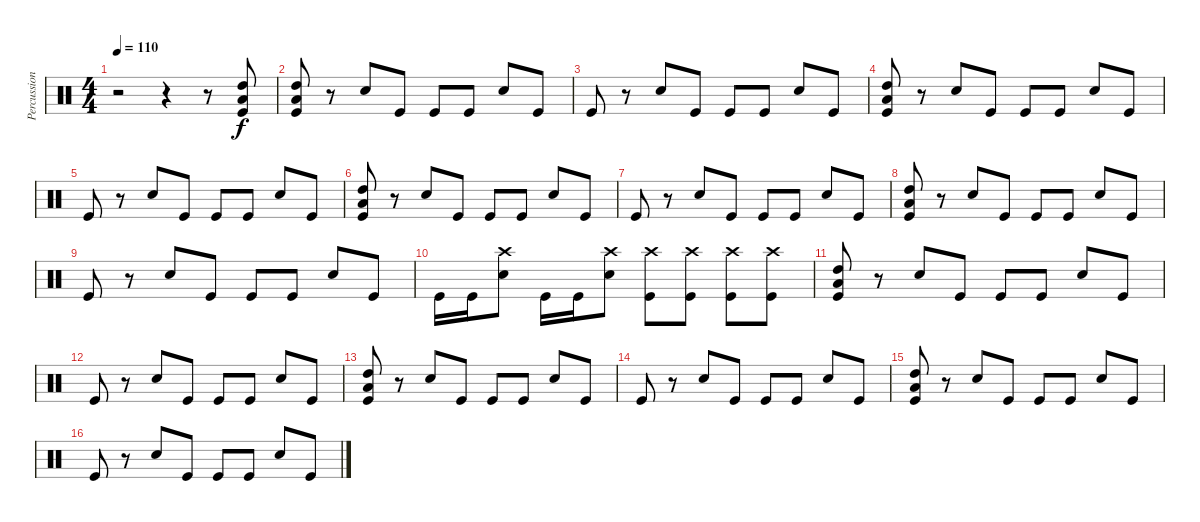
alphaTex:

\track ("Percussion" "Percussion") {instrument percussion}
\staff {score}
\articulation defaults
\ts (4 4)
\tempo 110
\clef neutral
\ks c
r.2{dy f} r.4 r.8 ("High Tom (hit)" "Low Tom (hit)" "Kick (hit)").8 |
("Kick (hit)" "Low Tom (hit)" "High Tom (hit)").8 r.8 "Snare (hit) 2".8 "Kick (hit)".8 "Kick (hit)".8 "Kick (hit)".8 "Snare (hit) 2".8 "Kick (hit)".8 |
"Kick (hit)".8 r.8 "Snare (hit) 2".8 "Kick (hit)".8 "Kick (hit)".8 "Kick (hit)".8 "Snare (hit) 2".8 "Kick (hit)".8 |
("Kick (hit)" "Low Tom (hit)" "High Tom (hit)").8 r.8 "Snare (hit) 2".8 "Kick (hit)".8 "Kick (hit)".8 "Kick (hit)".8 "Snare (hit) 2".8 "Kick (hit)".8 |
"Kick (hit)".8 r.8 "Snare (hit) 2".8 "Kick (hit)".8 "Kick (hit)".8 "Kick (hit)".8 "Snare (hit) 2".8 "Kick (hit)".8 |
("Kick (hit)" "Low Tom (hit)" "High Tom (hit)").8 r.8 "Snare (hit) 2".8 "Kick (hit)".8 "Kick (hit)".8 "Kick (hit)".8 "Snare (hit) 2".8 "Kick (hit)".8 |
"Kick (hit)".8 r.8 "Snare (hit) 2".8 "Kick (hit)".8 "Kick (hit)".8 "Kick (hit)".8 "Snare (hit) 2".8 "Kick (hit)".8 |
("Kick (hit)" "Low Tom (hit)" "High Tom (hit)").8 r.8 "Snare (hit) 2".8 "Kick (hit)".8 "Kick (hit)".8 "Kick (hit)".8 "Snare (hit) 2".8 "Kick (hit)".8 |
"Kick (hit)".8 r.8 "Snare (hit) 2".8 "Kick (hit)".8 "Kick (hit)".8 "Kick (hit)".8 "Snare (hit) 2".8 "Kick (hit)".8 |
"Kick (hit)".16 "Kick (hit)".16 ("Crash high (hit)" "Snare (hit) 2").8 "Kick (hit)".16 "Kick (hit)".16 ("Crash high (hit)" "Snare (hit) 2").8 ("Crash high (hit)" "Kick (hit)").8 ("Crash high (hit)" "Kick (hit)").8 ("Crash high (hit)" "Kick (hit)").8 ("Crash high (hit)" "Kick (hit)").8 |
("Kick (hit)" "Low Tom (hit)" "High Tom (hit)").8 r.8 "Snare (hit) 2".8 "Kick (hit)".8 "Kick (hit)".8 "Kick (hit)".8 "Snare (hit) 2".8 "Kick (hit)".8 |
"Kick (hit)".8 r.8 "Snare (hit) 2".8 "Kick (hit)".8 "Kick (hit)".8 "Kick (hit)".8 "Snare (hit) 2".8 "Kick (hit)".8 |
("Kick (hit)" "Low Tom (hit)" "High Tom (hit)").8 r.8 "Snare (hit) 2".8 "Kick (hit)".8 "Kick (hit)".8 "Kick (hit)".8 "Snare (hit) 2".8 "Kick (hit)".8 |
"Kick (hit)".8 r.8 "Snare (hit) 2".8 "Kick (hit)".8 "Kick (hit)".8 "Kick (hit)".8 "Snare (hit) 2".8 "Kick (hit)".8 |
("Kick (hit)" "Low Tom (hit)" "High Tom (hit)").8 r.8 "Snare (hit) 2".8 "Kick (hit)".8 "Kick (hit)".8 "Kick (hit)".8 "Snare (hit) 2".8 "Kick (hit)".8 |
"Kick (hit)".8 r.8 "Snare (hit) 2".8 "Kick (hit)".8 "Kick (hit)".8 "Kick (hit)".8 "Snare (hit) 2".8 "Kick (hit)".8
